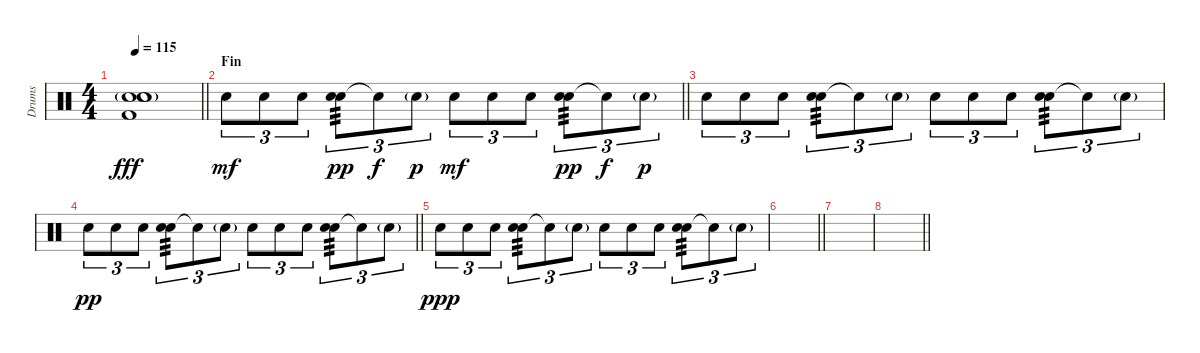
\track ("Drums" "Drums") {instrument percussion}
\staff {score}
\articulation defaults
\ts (4 4)
\tempo 115
\clef neutral
\barLineRight lightlight
\ks c
("Hand Clap (hit)"{g} "Snare (hit) 2" "Electric Snare (hit)" "Kick (hit) 2").1{dy fff} |
\section ("" "Fin")
\barLineRight lightlight "Electric Snare (hit)".8{tu (3 2) dy mf} "Electric Snare (hit)".8{tu (3 2)} "Electric Snare (hit)".8{tu (3 2)}
("Electric Snare (hit)" "Snare (hit) 2").8{tu (3 2) tp 3 dy pp} "Snare (hit)"{t}.8{tu (3 2) dy f} "Electric Snare (hit)"{g}.8{tu (3 2) dy p} "Electric Snare (hit)".8{tu (3 2) dy mf} "Electric Snare (hit)".8{tu (3 2)} "Electric Snare (hit)".8{tu (3 2)} ("Electric Snare (hit)" "Snare (hit) 2").8{tu (3 2) tp 3 dy pp} "Snare (hit)"{t}.8{tu (3 2) dy f} "Electric Snare (hit)"{g}.8{tu (3 2) dy p} |
"Electric Snare (hit)".8{tu (3 2)} "Electric Snare (hit)".8{tu (3 2)} "Electric Snare (hit)".8{tu (3 2)} ("Electric Snare (hit)" "Snare (hit) 2").8{tu (3 2) tp 3} "Snare (hit)"{t}.8{tu (3 2)} "Electric Snare (hit)"{g}.8{tu (3 2)} "Electric Snare (hit)".8{tu (3 2)} "Electric Snare (hit)".8{tu (3 2)} "Electric Snare (hit)".8{tu (3 2)} ("Electric Snare (hit)" "Snare (hit) 2").8{tu (3 2) tp 3} "Snare (hit)"{t}.8{tu (3 2)} "Electric Snare (hit)"{g}.8{tu (3 2)} |
\barLineRight lightlight "Electric Snare (hit)".8{tu (3 2) dy pp} "Electric Snare (hit)".8{tu (3 2)} "Electric Snare (hit)".8{tu (3 2)}
("Electric Snare (hit)" "Snare (hit) 2").8{tu (3 2) tp 3} "Snare (hit)"{t}.8{tu (3 2)} "Electric Snare (hit)"{g}.8{tu (3 2)} "Electric Snare (hit)".8{tu (3 2)} "Electric Snare (hit)".8{tu (3 2)} "Electric Snare (hit)".8{tu (3 2)} ("Electric Snare (hit)" "Snare (hit) 2").8{tu (3 2) tp 3} "Snare (hit)"{t}.8{tu (3 2)} "Electric Snare (hit)"{g}.8{tu (3 2)} |
"Electric Snare (hit)".8{tu (3 2) dy ppp} "Electric Snare (hit)".8{tu (3 2)} "Electric Snare (hit)".8{tu (3 2)} ("Electric Snare (hit)" "Snare (hit) 2").8{tu (3 2) tp 3} "Snare (hit)"{t}.8{tu (3 2)} "Electric Snare (hit)"{g}.8{tu (3 2)} "Electric Snare (hit)".8{tu (3 2)} "Electric Snare (hit)".8{tu (3 2)} "Electric Snare (hit)".8{tu (3 2)} ("Electric Snare (hit)" "Snare (hit) 2").8{tu (3 2) tp 3} "Snare (hit)"{t}.8{tu (3 2)} "Electric Snare (hit)"{g}.8{tu (3 2)} |
\barLineRight lightlight
|
|
\barLineRight lightlight
